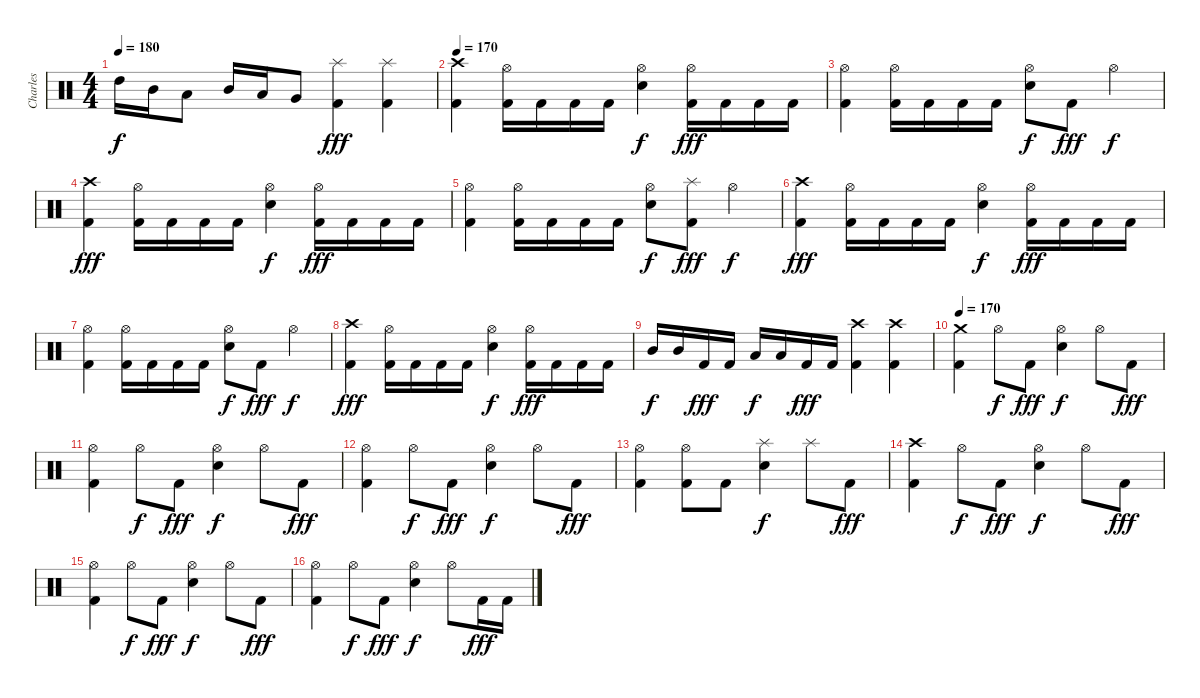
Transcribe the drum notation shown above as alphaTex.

\track ("Charles" "Charles") {instrument percussion}
\staff {score}
\articulation defaults
\ts (4 4)
\tempo 180
\clef neutral
\ks c "High Tom (hit)".16{dy f} "Mid Tom (hit)".16 "Low Tom (hit)".8 "Mid Tom (hit)".16 "Low Tom (hit)".16 "Very Low Tom (hit)".8
("Splash (hit)" "Kick (hit) 2").4{dy fff} ("Splash (hit)" "Kick (hit) 2").4 |
\tempo 170
("Crash high (hit)" "Kick (hit) 2").4 ("Hi-Hat (open)" "Kick (hit) 2").16 "Kick (hit) 2".16 "Kick (hit) 2".16 "Kick (hit) 2".16 ("Hi-Hat (open)" "Electric Snare (hit)").4{dy f} ("Hi-Hat (open)" "Kick (hit) 2").16{dy fff} "Kick (hit) 2".16 "Kick (hit) 2".16 "Kick (hit) 2".16 |
("Hi-Hat (open)" "Kick (hit) 2").4 ("Hi-Hat (open)" "Kick (hit) 2").16 "Kick (hit) 2".16 "Kick (hit) 2".16 "Kick (hit) 2".16 ("Hi-Hat (open)" "Electric Snare (hit)").8{dy f} "Kick (hit) 2".8{dy fff} "Hi-Hat (open)".4{dy f} |
("Crash high (hit)" "Kick (hit) 2").4{dy fff} ("Hi-Hat (open)" "Kick (hit) 2").16 "Kick (hit) 2".16 "Kick (hit) 2".16 "Kick (hit) 2".16 ("Hi-Hat (open)" "Electric Snare (hit)").4{dy f} ("Hi-Hat (open)" "Kick (hit) 2").16{dy fff} "Kick (hit) 2".16 "Kick (hit) 2".16 "Kick (hit) 2".16 |
("Hi-Hat (open)" "Kick (hit) 2").4 ("Hi-Hat (open)" "Kick (hit) 2").16 "Kick (hit) 2".16 "Kick (hit) 2".16 "Kick (hit) 2".16 ("Hi-Hat (open)" "Electric Snare (hit)").8{dy f} ("Splash (hit)" "Kick (hit) 2").8{dy fff} "Hi-Hat (open)".4{dy f} |
("Crash high (hit)" "Kick (hit) 2").4{dy fff} ("Hi-Hat (open)" "Kick (hit) 2").16 "Kick (hit) 2".16 "Kick (hit) 2".16 "Kick (hit) 2".16 ("Hi-Hat (open)" "Electric Snare (hit)").4{dy f} ("Hi-Hat (open)" "Kick (hit) 2").16{dy fff} "Kick (hit) 2".16 "Kick (hit) 2".16 "Kick (hit) 2".16 |
("Hi-Hat (open)" "Kick (hit) 2").4 ("Hi-Hat (open)" "Kick (hit) 2").16 "Kick (hit) 2".16 "Kick (hit) 2".16 "Kick (hit) 2".16 ("Hi-Hat (open)" "Electric Snare (hit)").8{dy f} "Kick (hit) 2".8{dy fff} "Hi-Hat (open)".4{dy f} |
("Crash high (hit)" "Kick (hit) 2").4{dy fff} ("Hi-Hat (open)" "Kick (hit) 2").16 "Kick (hit) 2".16 "Kick (hit) 2".16 "Kick (hit) 2".16 ("Hi-Hat (open)" "Electric Snare (hit)").4{dy f} ("Hi-Hat (open)" "Kick (hit) 2").16{dy fff} "Kick (hit) 2".16 "Kick (hit) 2".16 "Kick (hit) 2".16 |
"Mid Tom (hit)".16{dy f} "Mid Tom (hit)".16 "Kick (hit) 2".16{dy fff} "Kick (hit) 2".16 "Low Tom (hit)".16{dy f} "Low Tom (hit)".16 "Kick (hit) 2".16{dy fff} "Kick (hit) 2".16 ("Crash high (hit)" "Kick (hit) 2").4 ("Crash high (hit)" "Kick (hit) 2").4 |
\tempo 170
("Crash medium (hit)" "Kick (hit) 2").4 "Hi-Hat (open)".8{dy f} "Kick (hit) 2".8{dy fff} ("Hi-Hat (open)" "Electric Snare (hit)").4{dy f} "Hi-Hat (open)".8 "Kick (hit) 2".8{dy fff} |
("Hi-Hat (open)" "Kick (hit) 2").4 "Hi-Hat (open)".8{dy f} "Kick (hit) 2".8{dy fff} ("Hi-Hat (open)" "Electric Snare (hit)").4{dy f} "Hi-Hat (open)".8 "Kick (hit) 2".8{dy fff} |
("Hi-Hat (open)" "Kick (hit) 2").4 "Hi-Hat (open)".8{dy f} "Kick (hit) 2".8{dy fff} ("Hi-Hat (open)" "Electric Snare (hit)").4{dy f} "Hi-Hat (open)".8 "Kick (hit) 2".8{dy fff} |
("Hi-Hat (open)" "Kick (hit) 2").4 ("Hi-Hat (open)" "Kick (hit) 2").8 "Kick (hit) 2".8 ("Splash (hit)" "Electric Snare (hit)").4{dy f} "Splash (hit)".8 "Kick (hit) 2".8{dy fff} |
("Crash high (hit)" "Kick (hit) 2").4 "Hi-Hat (open)".8{dy f} "Kick (hit) 2".8{dy fff} ("Hi-Hat (open)" "Electric Snare (hit)").4{dy f} "Hi-Hat (open)".8 "Kick (hit) 2".8{dy fff} |
("Hi-Hat (open)" "Kick (hit) 2").4 "Hi-Hat (open)".8{dy f} "Kick (hit) 2".8{dy fff} ("Hi-Hat (open)" "Electric Snare (hit)").4{dy f} "Hi-Hat (open)".8 "Kick (hit) 2".8{dy fff} |
("Hi-Hat (open)" "Kick (hit) 2").4 "Hi-Hat (open)".8{dy f} "Kick (hit) 2".8{dy fff} ("Hi-Hat (open)" "Electric Snare (hit)").4{dy f} "Hi-Hat (open)".8 "Kick (hit) 2".16{dy fff} "Kick (hit) 2".16
